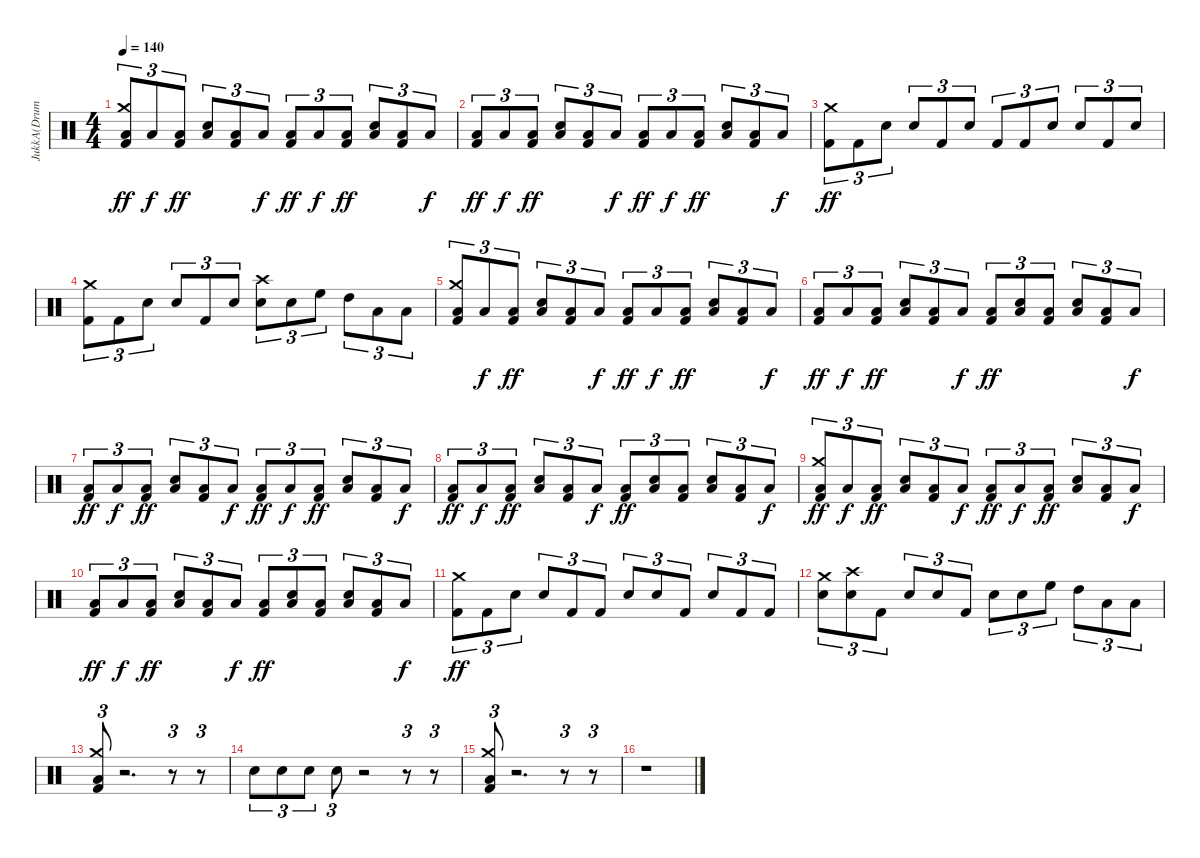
\track ("JukkA(Drums)" "JukkA(Drum") {instrument percussion}
\staff {score}
\articulation defaults
\ts (4 4)
\tempo 140
\clef neutral
\ks c
("Kick (hit) 2" "Crash medium (hit)" "Low Floor Tom (hit)").8{tu (3 2) dy ff} "Low Floor Tom (hit)".8{tu (3 2) dy f} ("Kick (hit) 2" "Low Floor Tom (hit)").8{tu (3 2) dy ff} ("Snare (hit) 2" "Low Floor Tom (hit)").8{tu (3 2)} ("Kick (hit) 2" "Low Floor Tom (hit)").8{tu (3 2)} "Low Floor Tom (hit)".8{tu (3 2) dy f} ("Kick (hit) 2" "Low Floor Tom (hit)").8{tu (3 2) dy ff} "Low Floor Tom (hit)".8{tu (3 2) dy f} ("Kick (hit) 2" "Low Floor Tom (hit)").8{tu (3 2) dy ff} ("Snare (hit) 2" "Low Floor Tom (hit)").8{tu (3 2)} ("Kick (hit) 2" "Low Floor Tom (hit)").8{tu (3 2)} "Low Floor Tom (hit)".8{tu (3 2) dy f} |
("Kick (hit) 2" "Low Floor Tom (hit)").8{tu (3 2) dy ff} "Low Floor Tom (hit)".8{tu (3 2) dy f} ("Kick (hit) 2" "Low Floor Tom (hit)").8{tu (3 2) dy ff} ("Snare (hit) 2" "Low Floor Tom (hit)").8{tu (3 2)} ("Kick (hit) 2" "Low Floor Tom (hit)").8{tu (3 2)} "Low Floor Tom (hit)".8{tu (3 2) dy f} ("Kick (hit) 2" "Low Floor Tom (hit)").8{tu (3 2) dy ff} "Low Floor Tom (hit)".8{tu (3 2) dy f} ("Kick (hit) 2" "Low Floor Tom (hit)").8{tu (3 2) dy ff} ("Snare (hit) 2" "Low Floor Tom (hit)").8{tu (3 2)} ("Kick (hit) 2" "Low Floor Tom (hit)").8{tu (3 2)} "Low Floor Tom (hit)".8{tu (3 2) dy f} |
("Kick (hit) 2" "Crash medium (hit)").8{tu (3 2) dy ff} "Kick (hit) 2".8{tu (3 2)} "Snare (hit) 2".8{tu (3 2)} "Snare (hit) 2".8{tu (3 2)} "Kick (hit) 2".8{tu (3 2)} "Snare (hit) 2".8{tu (3 2)} "Kick (hit) 2".8{tu (3 2)} "Kick (hit) 2".8{tu (3 2)} "Snare (hit) 2".8{tu (3 2)} "Snare (hit) 2".8{tu (3 2)} "Kick (hit) 2".8{tu (3 2)} "Snare (hit) 2".8{tu (3 2)} |
("Kick (hit) 2" "Crash medium (hit)").8{tu (3 2)} "Kick (hit) 2".8{tu (3 2)} "Snare (hit) 2".8{tu (3 2)} "Snare (hit) 2".8{tu (3 2)} "Kick (hit) 2".8{tu (3 2)} "Snare (hit) 2".8{tu (3 2)} ("Snare (hit) 2" "Crash high (hit)").8{tu (3 2)} "Snare (hit) 2".8{tu (3 2)} "High Floor Tom (hit)".8{tu (3 2)} "High Tom (hit)".8{tu (3 2)} "Low Tom (hit)".8{tu (3 2)} "Low Floor Tom (hit)".8{tu (3 2)} |
("Kick (hit) 2" "Crash medium (hit)" "Low Floor Tom (hit)").8{tu (3 2)} "Low Floor Tom (hit)".8{tu (3 2) dy f} ("Kick (hit) 2" "Low Floor Tom (hit)").8{tu (3 2) dy ff} ("Snare (hit) 2" "Low Floor Tom (hit)").8{tu (3 2)} ("Kick (hit) 2" "Low Floor Tom (hit)").8{tu (3 2)} "Low Floor Tom (hit)".8{tu (3 2) dy f} ("Kick (hit) 2" "Low Floor Tom (hit)").8{tu (3 2) dy ff} "Low Floor Tom (hit)".8{tu (3 2) dy f} ("Kick (hit) 2" "Low Floor Tom (hit)").8{tu (3 2) dy ff} ("Snare (hit) 2" "Low Floor Tom (hit)").8{tu (3 2)} ("Kick (hit) 2" "Low Floor Tom (hit)").8{tu (3 2)} "Low Floor Tom (hit)".8{tu (3 2) dy f} |
("Kick (hit) 2" "Low Floor Tom (hit)").8{tu (3 2) dy ff} "Low Floor Tom (hit)".8{tu (3 2) dy f} ("Kick (hit) 2" "Low Floor Tom (hit)").8{tu (3 2) dy ff} ("Snare (hit) 2" "Low Floor Tom (hit)").8{tu (3 2)} ("Kick (hit) 2" "Low Floor Tom (hit)").8{tu (3 2)} "Low Floor Tom (hit)".8{tu (3 2) dy f} ("Kick (hit) 2" "Low Floor Tom (hit)").8{tu (3 2) dy ff} ("Snare (hit) 2" "Low Floor Tom (hit)").8{tu (3 2)} ("Kick (hit) 2" "Low Floor Tom (hit)").8{tu (3 2)} ("Snare (hit) 2" "Low Floor Tom (hit)").8{tu (3 2)} ("Kick (hit) 2" "Low Floor Tom (hit)").8{tu (3 2)} "Low Floor Tom (hit)".8{tu (3 2) dy f} |
("Kick (hit) 2" "Low Floor Tom (hit)").8{tu (3 2) dy ff} "Low Floor Tom (hit)".8{tu (3 2) dy f} ("Kick (hit) 2" "Low Floor Tom (hit)").8{tu (3 2) dy ff} ("Snare (hit) 2" "Low Floor Tom (hit)").8{tu (3 2)} ("Kick (hit) 2" "Low Floor Tom (hit)").8{tu (3 2)} "Low Floor Tom (hit)".8{tu (3 2) dy f} ("Kick (hit) 2" "Low Floor Tom (hit)").8{tu (3 2) dy ff} "Low Floor Tom (hit)".8{tu (3 2) dy f} ("Kick (hit) 2" "Low Floor Tom (hit)").8{tu (3 2) dy ff} ("Snare (hit) 2" "Low Floor Tom (hit)").8{tu (3 2)} ("Kick (hit) 2" "Low Floor Tom (hit)").8{tu (3 2)} "Low Floor Tom (hit)".8{tu (3 2) dy f} |
("Kick (hit) 2" "Low Floor Tom (hit)").8{tu (3 2) dy ff} "Low Floor Tom (hit)".8{tu (3 2) dy f} ("Kick (hit) 2" "Low Floor Tom (hit)").8{tu (3 2) dy ff} ("Snare (hit) 2" "Low Floor Tom (hit)").8{tu (3 2)} ("Kick (hit) 2" "Low Floor Tom (hit)").8{tu (3 2)} "Low Floor Tom (hit)".8{tu (3 2) dy f} ("Kick (hit) 2" "Low Floor Tom (hit)").8{tu (3 2) dy ff} ("Snare (hit) 2" "Low Floor Tom (hit)").8{tu (3 2)} ("Kick (hit) 2" "Low Floor Tom (hit)").8{tu (3 2)} ("Snare (hit) 2" "Low Floor Tom (hit)").8{tu (3 2)} ("Kick (hit) 2" "Low Floor Tom (hit)").8{tu (3 2)} "Low Floor Tom (hit)".8{tu (3 2) dy f} |
("Kick (hit) 2" "Crash medium (hit)" "Low Floor Tom (hit)").8{tu (3 2) dy ff} "Low Floor Tom (hit)".8{tu (3 2) dy f} ("Kick (hit) 2" "Low Floor Tom (hit)").8{tu (3 2) dy ff} ("Snare (hit) 2" "Low Floor Tom (hit)").8{tu (3 2)} ("Kick (hit) 2" "Low Floor Tom (hit)").8{tu (3 2)} "Low Floor Tom (hit)".8{tu (3 2) dy f} ("Kick (hit) 2" "Low Floor Tom (hit)").8{tu (3 2) dy ff} "Low Floor Tom (hit)".8{tu (3 2) dy f} ("Kick (hit) 2" "Low Floor Tom (hit)").8{tu (3 2) dy ff} ("Snare (hit) 2" "Low Floor Tom (hit)").8{tu (3 2)} ("Kick (hit) 2" "Low Floor Tom (hit)").8{tu (3 2)} "Low Floor Tom (hit)".8{tu (3 2) dy f} |
("Kick (hit) 2" "Low Floor Tom (hit)").8{tu (3 2) dy ff} "Low Floor Tom (hit)".8{tu (3 2) dy f} ("Kick (hit) 2" "Low Floor Tom (hit)").8{tu (3 2) dy ff} ("Snare (hit) 2" "Low Floor Tom (hit)").8{tu (3 2)} ("Kick (hit) 2" "Low Floor Tom (hit)").8{tu (3 2)} "Low Floor Tom (hit)".8{tu (3 2) dy f} ("Kick (hit) 2" "Low Floor Tom (hit)").8{tu (3 2) dy ff} ("Snare (hit) 2" "Low Floor Tom (hit)").8{tu (3 2)} ("Kick (hit) 2" "Low Floor Tom (hit)").8{tu (3 2)} ("Snare (hit) 2" "Low Floor Tom (hit)").8{tu (3 2)} ("Kick (hit) 2" "Low Floor Tom (hit)").8{tu (3 2)} "Low Floor Tom (hit)".8{tu (3 2) dy f} |
("Kick (hit) 2" "Crash medium (hit)").8{tu (3 2) dy ff} "Kick (hit) 2".8{tu (3 2)} "Snare (hit) 2".8{tu (3 2)} "Snare (hit) 2".8{tu (3 2)} "Kick (hit) 2".8{tu (3 2)} "Kick (hit) 2".8{tu (3 2)} "Snare (hit) 2".8{tu (3 2)} "Snare (hit) 2".8{tu (3 2)} "Kick (hit) 2".8{tu (3 2)} "Snare (hit) 2".8{tu (3 2)} "Kick (hit) 2".8{tu (3 2)} "Kick (hit) 2".8{tu (3 2)} |
("Snare (hit) 2" "Crash medium (hit)").8{tu (3 2)} ("Snare (hit) 2" "Crash high (hit)").8{tu (3 2)} "Kick (hit) 2".8{tu (3 2)} "Snare (hit) 2".8{tu (3 2)} "Snare (hit) 2".8{tu (3 2)} "Kick (hit) 2".8{tu (3 2)} "Snare (hit) 2".8{tu (3 2)} "Snare (hit) 2".8{tu (3 2)} "High Floor Tom (hit)".8{tu (3 2)} "High Tom (hit)".8{tu (3 2)} "Low Tom (hit)".8{tu (3 2)} "Low Floor Tom (hit)".8{tu (3 2)} |
("Kick (hit) 2" "Low Floor Tom (hit)" "Crash medium (hit)").8{tu (3 2)} r.2{d} r.8{tu (3 2)} r.8{tu (3 2)} |
"Snare (hit) 2".8{tu (3 2)} "Snare (hit) 2".8{tu (3 2)} "Snare (hit) 2".8{tu (3 2)} "Snare (hit) 2".8{tu (3 2)} r.2 r.8{tu (3 2)} r.8{tu (3 2)} |
("Kick (hit) 2" "Low Floor Tom (hit)" "Crash medium (hit)").8{tu (3 2)} r.2{d} r.8{tu (3 2)} r.8{tu (3 2)} |
r.1
